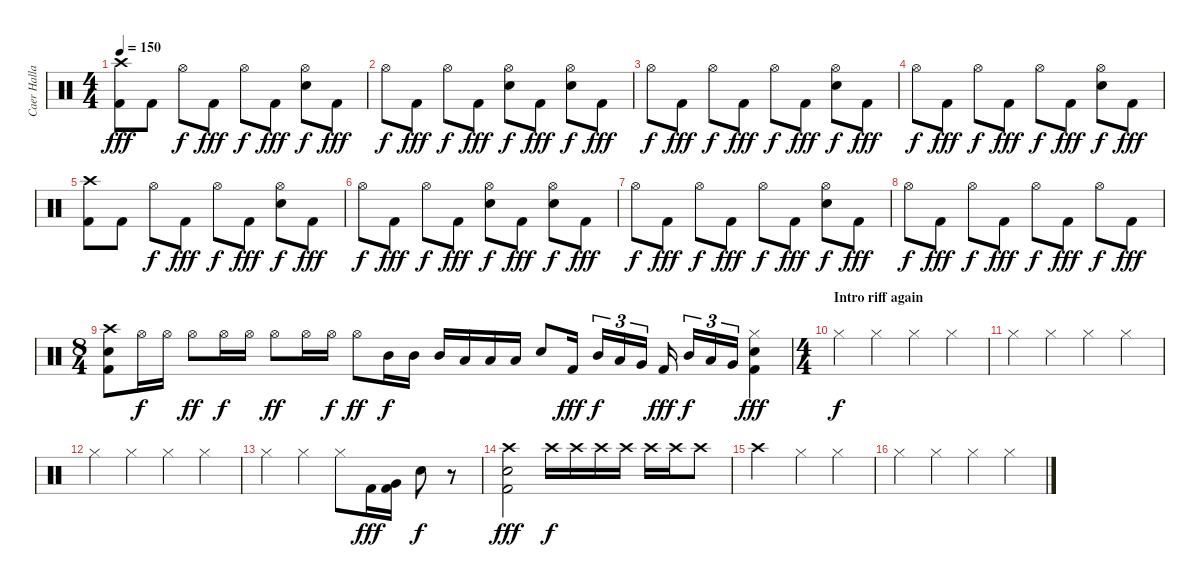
\track ("Caer Hallam Generis" "Caer Halla") {instrument percussion}
\staff {score}
\articulation defaults
\ts (4 4)
\tempo 150
\clef neutral
\ks c
("Crash high (hit)" "Kick (hit) 2").8{dy fff} "Kick (hit) 2".8 "Hi-Hat (open)".8{dy f} "Kick (hit) 2".8{dy fff} "Hi-Hat (open)".8{dy f} "Kick (hit) 2".8{dy fff} ("Hi-Hat (open)" "Snare (hit) 2").8{dy f} "Kick (hit) 2".8{dy fff} |
"Hi-Hat (open)".8{dy f} "Kick (hit) 2".8{dy fff} "Hi-Hat (open)".8{dy f} "Kick (hit) 2".8{dy fff} ("Hi-Hat (open)" "Snare (hit) 2").8{dy f} "Kick (hit) 2".8{dy fff} ("Hi-Hat (open)" "Snare (hit) 2").8{dy f} "Kick (hit) 2".8{dy fff} |
"Hi-Hat (open)".8{dy f} "Kick (hit) 2".8{dy fff} "Hi-Hat (open)".8{dy f} "Kick (hit) 2".8{dy fff} "Hi-Hat (open)".8{dy f} "Kick (hit) 2".8{dy fff} ("Hi-Hat (open)" "Snare (hit) 2").8{dy f} "Kick (hit) 2".8{dy fff} |
"Hi-Hat (open)".8{dy f} "Kick (hit) 2".8{dy fff} "Hi-Hat (open)".8{dy f} "Kick (hit) 2".8{dy fff} "Hi-Hat (open)".8{dy f} "Kick (hit) 2".8{dy fff} ("Hi-Hat (open)" "Snare (hit) 2").8{dy f} "Kick (hit) 2".8{dy fff} |
("Crash high (hit)" "Kick (hit) 2").8 "Kick (hit) 2".8 "Hi-Hat (open)".8{dy f} "Kick (hit) 2".8{dy fff} "Hi-Hat (open)".8{dy f} "Kick (hit) 2".8{dy fff} ("Hi-Hat (open)" "Snare (hit) 2").8{dy f} "Kick (hit) 2".8{dy fff} |
"Hi-Hat (open)".8{dy f} "Kick (hit) 2".8{dy fff} "Hi-Hat (open)".8{dy f} "Kick (hit) 2".8{dy fff} ("Hi-Hat (open)" "Snare (hit) 2").8{dy f} "Kick (hit) 2".8{dy fff} ("Hi-Hat (open)" "Snare (hit) 2").8{dy f} "Kick (hit) 2".8{dy fff} |
"Hi-Hat (open)".8{dy f} "Kick (hit) 2".8{dy fff} "Hi-Hat (open)".8{dy f} "Kick (hit) 2".8{dy fff} "Hi-Hat (open)".8{dy f} "Kick (hit) 2".8{dy fff} ("Hi-Hat (open)" "Snare (hit) 2").8{dy f} "Kick (hit) 2".8{dy fff} |
"Hi-Hat (open)".8{dy f} "Kick (hit) 2".8{dy fff} "Hi-Hat (open)".8{dy f} "Kick (hit) 2".8{dy fff} "Hi-Hat (open)".8{dy f} "Kick (hit) 2".8{dy fff} "Hi-Hat (open)".8{dy f} "Kick (hit) 2".8{dy fff} |
\ts (8 4)
("Crash high (hit)" "Snare (hit) 2" "Kick (hit) 2").8 "Hi-Hat (open)".16{dy f} "Hi-Hat (open)".16 "Hi-Hat (open)".8{dy ff} "Hi-Hat (open)".16{dy f} "Hi-Hat (open)".16 "Hi-Hat (open)".8{dy ff} "Hi-Hat (open)".16 "Hi-Hat (open)".16{dy f} "Hi-Hat (open)".8{dy ff} "Mid Tom (hit)".16{dy f} "Mid Tom (hit)".16 "Mid Tom (hit)".16 "Low Tom (hit)".16 "Low Tom (hit)".16 "Low Tom (hit)".16 "Snare (hit) 2".8 "Kick (hit) 2".16{dy fff} "Mid Tom (hit)".16{tu (3 2) dy f} "Low Tom (hit)".16{tu (3 2)} "Very Low Tom (hit)".16{tu (3 2)} "Kick (hit) 2".16{dy fff} "Mid Tom (hit)".16{tu (3 2) dy f} "Low Tom (hit)".16{tu (3 2)} "Very Low Tom (hit)".16{tu (3 2)} ("Hi-Hat (closed)" "Snare (hit) 2" "Kick (hit) 2").4{dy fff} |
\ts (4 4)
\section ("" "Intro riff again")
"Hi-Hat (closed)".4{dy f} "Hi-Hat (closed)".4 "Hi-Hat (closed)".4 "Hi-Hat (closed)".4 |
"Hi-Hat (closed)".4 "Hi-Hat (closed)".4 "Hi-Hat (closed)".4 "Hi-Hat (closed)".4 |
"Hi-Hat (closed)".4 "Hi-Hat (closed)".4 "Hi-Hat (closed)".4 "Hi-Hat (closed)".4 |
"Hi-Hat (closed)".4 "Hi-Hat (closed)".4 "Hi-Hat (closed)".8 "Kick (hit) 2".16{dy fff} ("Very Low Tom (hit)" "Kick (hit) 2").16 "Snare (hit) 2".8{dy f} r.8 |
("Crash high (hit)" "Snare (hit) 2" "Kick (hit) 2").2{dy fff} "Crash high (hit)".16{dy f} "Crash high (hit)".16 "Crash high (hit)".16 "Crash high (hit)".16 "Crash high (hit)".16 "Crash high (hit)".16 "Crash high (hit)".8 |
"Crash high (hit)".2 "Hi-Hat (closed)".4 "Hi-Hat (closed)".4 |
"Hi-Hat (closed)".4 "Hi-Hat (closed)".4 "Hi-Hat (closed)".4 "Hi-Hat (closed)".4
